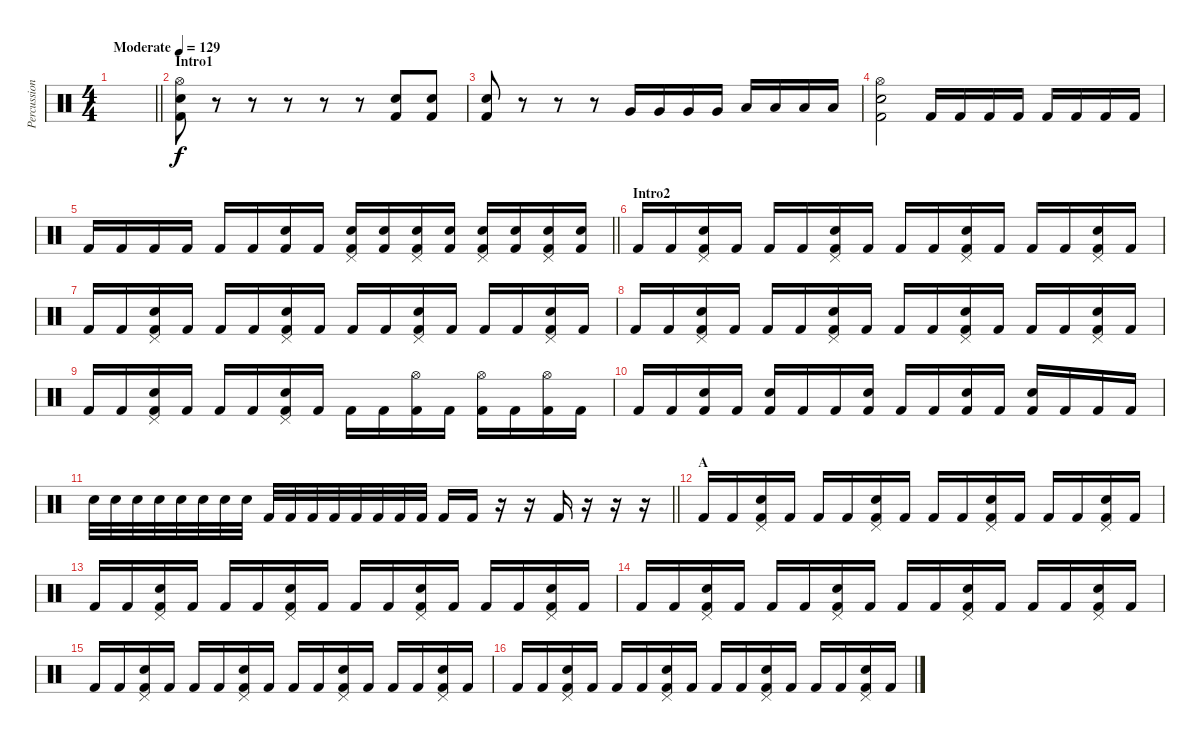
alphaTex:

\track ("Percussion" "Percussion") {instrument percussion}
\staff {score}
\articulation defaults
\ts (4 4)
\tempo (129 "Moderate")
\clef neutral
\barLineRight lightlight
\ks c
|
\section ("" "Intro1")
("Hi-Hat (open)" "Snare (hit) 2" "Kick (hit) 2").8 r.8 r.8 r.8 r.8 r.8 ("Snare (hit) 2" "Kick (hit) 2").8 ("Snare (hit) 2" "Kick (hit) 2").8 |
("Snare (hit) 2" "Kick (hit) 2").8 r.8 r.8 r.8 "Very Low Tom (hit)".16 "Very Low Tom (hit)".16 "Very Low Tom (hit)".16 "Very Low Tom (hit)".16 "Low Floor Tom (hit)".16 "Low Floor Tom (hit)".16 "Low Floor Tom (hit)".16 "Low Floor Tom (hit)".16 |
("Hi-Hat (open)" "Snare (hit) 2" "Kick (hit) 2").2 "Kick (hit) 2".16 "Kick (hit) 2".16 "Kick (hit) 2".16 "Kick (hit) 2".16 "Kick (hit) 2".16 "Kick (hit) 2".16 "Kick (hit) 2".16 "Kick (hit) 2".16 |
\barLineRight lightlight "Kick (hit) 2".16 "Kick (hit) 2".16 "Kick (hit) 2".16 "Kick (hit) 2".16 "Kick (hit) 2".16 "Kick (hit) 2".16
("Snare (hit) 2" "Kick (hit) 2").16 "Kick (hit) 2".16 ("Pedal Hi-Hat (hit)" "Snare (hit) 2" "Kick (hit) 2").16 ("Snare (hit) 2" "Kick (hit) 2").16 ("Pedal Hi-Hat (hit)" "Snare (hit) 2" "Kick (hit) 2").16 ("Snare (hit) 2" "Kick (hit) 2").16 ("Pedal Hi-Hat (hit)" "Snare (hit) 2" "Kick (hit) 2").16 ("Snare (hit) 2" "Kick (hit) 2").16 ("Pedal Hi-Hat (hit)" "Snare (hit) 2" "Kick (hit) 2").16 ("Snare (hit) 2" "Kick (hit) 2").16 |
\section ("" "Intro2")
"Kick (hit) 2".16 "Kick (hit) 2".16 ("Pedal Hi-Hat (hit)" "Snare (hit) 2" "Kick (hit) 2").16 "Kick (hit) 2".16 "Kick (hit) 2".16 "Kick (hit) 2".16 ("Pedal Hi-Hat (hit)" "Snare (hit) 2" "Kick (hit) 2").16 "Kick (hit) 2".16 "Kick (hit) 2".16 "Kick (hit) 2".16 ("Pedal Hi-Hat (hit)" "Snare (hit) 2" "Kick (hit) 2").16 "Kick (hit) 2".16 "Kick (hit) 2".16 "Kick (hit) 2".16 ("Pedal Hi-Hat (hit)" "Snare (hit) 2" "Kick (hit) 2").16 "Kick (hit) 2".16 |
"Kick (hit) 2".16 "Kick (hit) 2".16 ("Pedal Hi-Hat (hit)" "Snare (hit) 2" "Kick (hit) 2").16 "Kick (hit) 2".16 "Kick (hit) 2".16 "Kick (hit) 2".16 ("Pedal Hi-Hat (hit)" "Snare (hit) 2" "Kick (hit) 2").16 "Kick (hit) 2".16 "Kick (hit) 2".16 "Kick (hit) 2".16 ("Pedal Hi-Hat (hit)" "Snare (hit) 2" "Kick (hit) 2").16 "Kick (hit) 2".16 "Kick (hit) 2".16 "Kick (hit) 2".16 ("Pedal Hi-Hat (hit)" "Snare (hit) 2" "Kick (hit) 2").16 "Kick (hit) 2".16 |
"Kick (hit) 2".16 "Kick (hit) 2".16 ("Pedal Hi-Hat (hit)" "Snare (hit) 2" "Kick (hit) 2").16 "Kick (hit) 2".16 "Kick (hit) 2".16 "Kick (hit) 2".16 ("Pedal Hi-Hat (hit)" "Snare (hit) 2" "Kick (hit) 2").16 "Kick (hit) 2".16 "Kick (hit) 2".16 "Kick (hit) 2".16 ("Pedal Hi-Hat (hit)" "Snare (hit) 2" "Kick (hit) 2").16 "Kick (hit) 2".16 "Kick (hit) 2".16 "Kick (hit) 2".16 ("Pedal Hi-Hat (hit)" "Snare (hit) 2" "Kick (hit) 2").16 "Kick (hit) 2".16 |
"Kick (hit) 2".16 "Kick (hit) 2".16 ("Pedal Hi-Hat (hit)" "Snare (hit) 2" "Kick (hit) 2").16 "Kick (hit) 2".16 "Kick (hit) 2".16 "Kick (hit) 2".16 ("Pedal Hi-Hat (hit)" "Snare (hit) 2" "Kick (hit) 2").16 "Kick (hit) 2".16 "Kick (hit) 2".16 "Kick (hit) 2".16 ("Hi-Hat (open)" "Kick (hit) 2").16 "Kick (hit) 2".16 ("Hi-Hat (open)" "Kick (hit) 2").16 "Kick (hit) 2".16 ("Hi-Hat (open)" "Kick (hit) 2").16 "Kick (hit) 2".16 |
"Kick (hit) 2".16 "Kick (hit) 2".16 ("Snare (hit) 2" "Kick (hit) 2").16 "Kick (hit) 2".16 ("Snare (hit) 2" "Kick (hit) 2").16 "Kick (hit) 2".16 "Kick (hit) 2".16 ("Snare (hit) 2" "Kick (hit) 2").16 "Kick (hit) 2".16 "Kick (hit) 2".16 ("Snare (hit) 2" "Kick (hit) 2").16 "Kick (hit) 2".16 ("Snare (hit) 2" "Kick (hit) 2").16 "Kick (hit) 2".16 "Kick (hit) 2".16 "Kick (hit) 2".16 |
\barLineRight lightlight "Snare (hit) 2".32 "Snare (hit) 2".32 "Snare (hit) 2".32 "Snare (hit) 2".32 "Snare (hit) 2".32 "Snare (hit) 2".32 "Snare (hit) 2".32 "Snare (hit) 2".32 "Kick (hit) 2".32 "Kick (hit) 2".32 "Kick (hit) 2".32 "Kick (hit) 2".32 "Kick (hit) 2".32 "Kick (hit) 2".32 "Kick (hit) 2".32 "Kick (hit) 2".32 "Kick (hit) 2".16 "Kick (hit) 2".16
r.16 r.16 "Kick (hit) 2".16 r.16 r.16 r.16 |
\section ("" "A")
"Kick (hit) 2".16 "Kick (hit) 2".16 ("Pedal Hi-Hat (hit)" "Snare (hit) 2" "Kick (hit) 2").16 "Kick (hit) 2".16 "Kick (hit) 2".16 "Kick (hit) 2".16 ("Pedal Hi-Hat (hit)" "Snare (hit) 2" "Kick (hit) 2").16 "Kick (hit) 2".16 "Kick (hit) 2".16 "Kick (hit) 2".16 ("Pedal Hi-Hat (hit)" "Snare (hit) 2" "Kick (hit) 2").16 "Kick (hit) 2".16 "Kick (hit) 2".16 "Kick (hit) 2".16 ("Pedal Hi-Hat (hit)" "Snare (hit) 2" "Kick (hit) 2").16 "Kick (hit) 2".16 |
"Kick (hit) 2".16 "Kick (hit) 2".16 ("Pedal Hi-Hat (hit)" "Snare (hit) 2" "Kick (hit) 2").16 "Kick (hit) 2".16 "Kick (hit) 2".16 "Kick (hit) 2".16 ("Pedal Hi-Hat (hit)" "Snare (hit) 2" "Kick (hit) 2").16 "Kick (hit) 2".16 "Kick (hit) 2".16 "Kick (hit) 2".16 ("Pedal Hi-Hat (hit)" "Snare (hit) 2" "Kick (hit) 2").16 "Kick (hit) 2".16 "Kick (hit) 2".16 "Kick (hit) 2".16 ("Pedal Hi-Hat (hit)" "Snare (hit) 2" "Kick (hit) 2").16 "Kick (hit) 2".16 |
"Kick (hit) 2".16 "Kick (hit) 2".16 ("Pedal Hi-Hat (hit)" "Snare (hit) 2" "Kick (hit) 2").16 "Kick (hit) 2".16 "Kick (hit) 2".16 "Kick (hit) 2".16 ("Pedal Hi-Hat (hit)" "Snare (hit) 2" "Kick (hit) 2").16 "Kick (hit) 2".16 "Kick (hit) 2".16 "Kick (hit) 2".16 ("Pedal Hi-Hat (hit)" "Snare (hit) 2" "Kick (hit) 2").16 "Kick (hit) 2".16 "Kick (hit) 2".16 "Kick (hit) 2".16 ("Pedal Hi-Hat (hit)" "Snare (hit) 2" "Kick (hit) 2").16 "Kick (hit) 2".16 |
"Kick (hit) 2".16 "Kick (hit) 2".16 ("Pedal Hi-Hat (hit)" "Snare (hit) 2" "Kick (hit) 2").16 "Kick (hit) 2".16 "Kick (hit) 2".16 "Kick (hit) 2".16 ("Pedal Hi-Hat (hit)" "Snare (hit) 2" "Kick (hit) 2").16 "Kick (hit) 2".16 "Kick (hit) 2".16 "Kick (hit) 2".16 ("Pedal Hi-Hat (hit)" "Snare (hit) 2" "Kick (hit) 2").16 "Kick (hit) 2".16 "Kick (hit) 2".16 "Kick (hit) 2".16 ("Pedal Hi-Hat (hit)" "Snare (hit) 2" "Kick (hit) 2").16 "Kick (hit) 2".16 |
"Kick (hit) 2".16 "Kick (hit) 2".16 ("Pedal Hi-Hat (hit)" "Snare (hit) 2" "Kick (hit) 2").16 "Kick (hit) 2".16 "Kick (hit) 2".16 "Kick (hit) 2".16 ("Pedal Hi-Hat (hit)" "Snare (hit) 2" "Kick (hit) 2").16 "Kick (hit) 2".16 "Kick (hit) 2".16 "Kick (hit) 2".16 ("Pedal Hi-Hat (hit)" "Snare (hit) 2" "Kick (hit) 2").16 "Kick (hit) 2".16 "Kick (hit) 2".16 "Kick (hit) 2".16 ("Pedal Hi-Hat (hit)" "Snare (hit) 2" "Kick (hit) 2").16 "Kick (hit) 2".16
